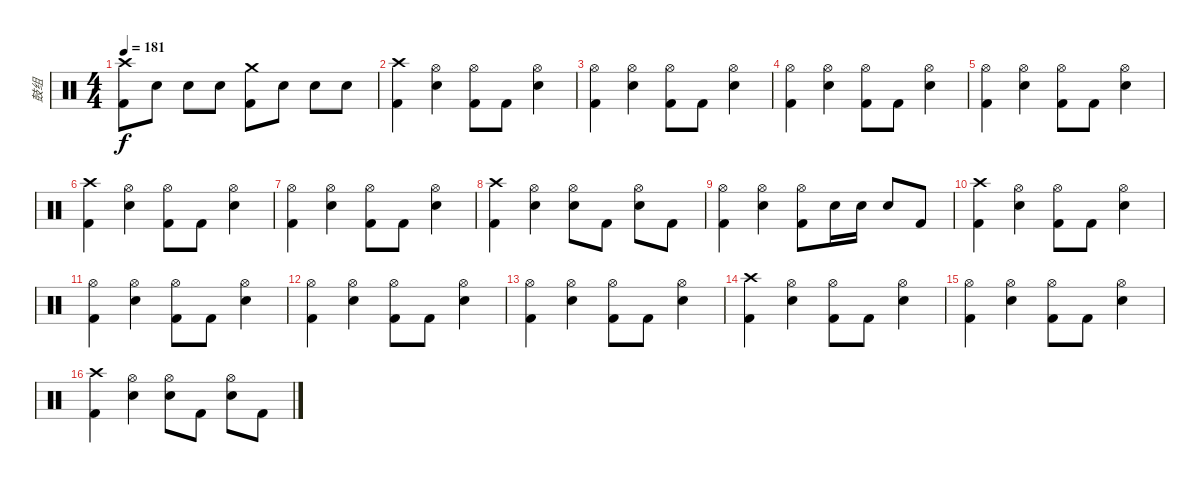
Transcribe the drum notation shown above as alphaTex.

\track ("鼓组" "鼓组") {instrument percussion}
\staff {score}
\articulation defaults
\ts (4 4)
\tempo 181
\clef neutral
\ks c
("Crash high (hit)" "Kick (hit) 2").8{dy f} "Snare (hit) 2".8 "Snare (hit) 2".8 "Snare (hit) 2".8 ("Crash medium (hit)" "Kick (hit) 2").8 "Snare (hit) 2".8 "Snare (hit) 2".8 "Snare (hit) 2".8 |
("Crash high (hit)" "Kick (hit) 2").4 ("Hi-Hat (open)" "Snare (hit) 2").4 ("Hi-Hat (open)" "Kick (hit) 2").8 "Kick (hit) 2".8 ("Hi-Hat (open)" "Snare (hit) 2").4 |
("Hi-Hat (open)" "Kick (hit) 2").4 ("Hi-Hat (open)" "Snare (hit) 2").4 ("Hi-Hat (open)" "Kick (hit) 2").8 "Kick (hit) 2".8 ("Hi-Hat (open)" "Snare (hit) 2").4 |
("Hi-Hat (open)" "Kick (hit) 2").4 ("Hi-Hat (open)" "Snare (hit) 2").4 ("Hi-Hat (open)" "Kick (hit) 2").8 "Kick (hit) 2".8 ("Hi-Hat (open)" "Snare (hit) 2").4 |
("Hi-Hat (open)" "Kick (hit) 2").4 ("Hi-Hat (open)" "Snare (hit) 2").4 ("Hi-Hat (open)" "Kick (hit) 2").8 "Kick (hit) 2".8 ("Hi-Hat (open)" "Snare (hit) 2").4 |
("Crash high (hit)" "Kick (hit) 2").4 ("Hi-Hat (open)" "Snare (hit) 2").4 ("Hi-Hat (open)" "Kick (hit) 2").8 "Kick (hit) 2".8 ("Hi-Hat (open)" "Snare (hit) 2").4 |
("Hi-Hat (open)" "Kick (hit) 2").4 ("Hi-Hat (open)" "Snare (hit) 2").4 ("Hi-Hat (open)" "Kick (hit) 2").8 "Kick (hit) 2".8 ("Hi-Hat (open)" "Snare (hit) 2").4 |
("Crash high (hit)" "Kick (hit) 2").4 ("Hi-Hat (open)" "Snare (hit) 2").4 ("Hi-Hat (open)" "Snare (hit) 2").8 "Kick (hit) 2".8 ("Hi-Hat (open)" "Snare (hit) 2").8 "Kick (hit) 2".8 |
("Hi-Hat (open)" "Kick (hit) 2").4 ("Hi-Hat (open)" "Snare (hit) 2").4 ("Hi-Hat (open)" "Kick (hit) 2").8 "Snare (hit) 2".16 "Snare (hit) 2".16 "Snare (hit) 2".8 "Kick (hit) 2".8 |
("Crash high (hit)" "Kick (hit) 2").4 ("Hi-Hat (open)" "Snare (hit) 2").4 ("Hi-Hat (open)" "Kick (hit) 2").8 "Kick (hit) 2".8 ("Hi-Hat (open)" "Snare (hit) 2").4 |
("Hi-Hat (open)" "Kick (hit) 2").4 ("Hi-Hat (open)" "Snare (hit) 2").4 ("Hi-Hat (open)" "Kick (hit) 2").8 "Kick (hit) 2".8 ("Hi-Hat (open)" "Snare (hit) 2").4 |
("Hi-Hat (open)" "Kick (hit) 2").4 ("Hi-Hat (open)" "Snare (hit) 2").4 ("Hi-Hat (open)" "Kick (hit) 2").8 "Kick (hit) 2".8 ("Hi-Hat (open)" "Snare (hit) 2").4 |
("Hi-Hat (open)" "Kick (hit) 2").4 ("Hi-Hat (open)" "Snare (hit) 2").4 ("Hi-Hat (open)" "Kick (hit) 2").8 "Kick (hit) 2".8 ("Hi-Hat (open)" "Snare (hit) 2").4 |
("Crash high (hit)" "Kick (hit) 2").4 ("Hi-Hat (open)" "Snare (hit) 2").4 ("Hi-Hat (open)" "Kick (hit) 2").8 "Kick (hit) 2".8 ("Hi-Hat (open)" "Snare (hit) 2").4 |
("Hi-Hat (open)" "Kick (hit) 2").4 ("Hi-Hat (open)" "Snare (hit) 2").4 ("Hi-Hat (open)" "Kick (hit) 2").8 "Kick (hit) 2".8 ("Hi-Hat (open)" "Snare (hit) 2").4 |
("Crash high (hit)" "Kick (hit) 2").4 ("Hi-Hat (open)" "Snare (hit) 2").4 ("Hi-Hat (open)" "Snare (hit) 2").8 "Kick (hit) 2".8 ("Hi-Hat (open)" "Snare (hit) 2").8 "Kick (hit) 2".8
